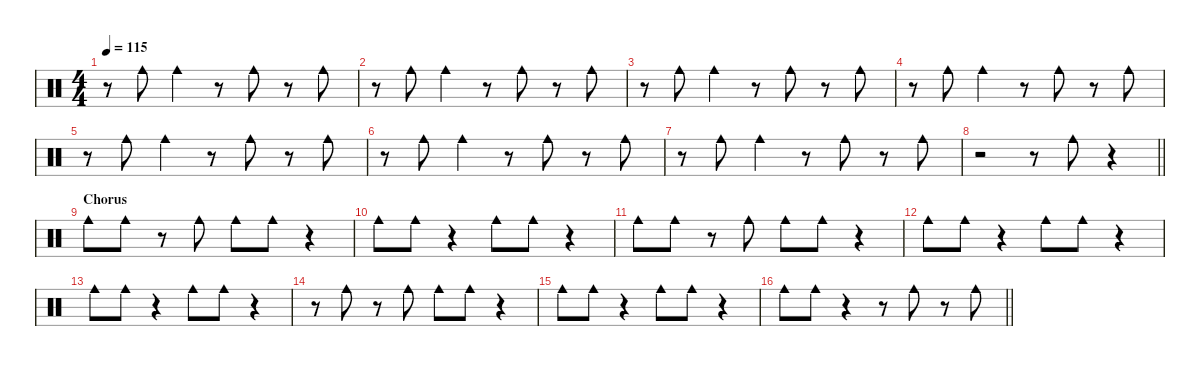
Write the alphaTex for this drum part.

\defaultSystemsLayout 4
\hideDynamics
\bracketExtendMode nobrackets
\singleTrackTrackNamePolicy hidden
\multiTrackTrackNamePolicy hidden
\otherSystemsTrackNameOrientation horizontal
\track ("Cowbell" "drm.") {defaultSystemsLayout 8 instrument percussion}
\staff {score}
\articulation defaults
\ts (4 4)
\tempo 115
\clef neutral
\ks c
r.8{dy f} "Cowbell medium (hit)".8 "Cowbell medium (hit)".4 r.8 "Cowbell medium (hit)".8 r.8 "Cowbell medium (hit)".8 |
r.8 "Cowbell medium (hit)".8 "Cowbell medium (hit)".4 r.8 "Cowbell medium (hit)".8 r.8 "Cowbell medium (hit)".8 |
r.8 "Cowbell medium (hit)".8 "Cowbell medium (hit)".4 r.8 "Cowbell medium (hit)".8 r.8 "Cowbell medium (hit)".8 |
r.8 "Cowbell medium (hit)".8 "Cowbell medium (hit)".4 r.8 "Cowbell medium (hit)".8 r.8 "Cowbell medium (hit)".8 |
r.8 "Cowbell medium (hit)".8 "Cowbell medium (hit)".4 r.8 "Cowbell medium (hit)".8 r.8 "Cowbell medium (hit)".8 |
r.8 "Cowbell medium (hit)".8 "Cowbell medium (hit)".4 r.8 "Cowbell medium (hit)".8 r.8 "Cowbell medium (hit)".8 |
r.8 "Cowbell medium (hit)".8 "Cowbell medium (hit)".4 r.8 "Cowbell medium (hit)".8 r.8 "Cowbell medium (hit)".8 |
\barLineRight lightlight
r.2 r.8 "Cowbell medium (hit)".8 r.4 |
\section ("" "Chorus")
"Cowbell medium (hit)".8 "Cowbell medium (hit)".8 r.8 "Cowbell medium (hit)".8 "Cowbell medium (hit)".8 "Cowbell medium (hit)".8 r.4 |
"Cowbell medium (hit)".8 "Cowbell medium (hit)".8 r.4 "Cowbell medium (hit)".8 "Cowbell medium (hit)".8 r.4 |
"Cowbell medium (hit)".8 "Cowbell medium (hit)".8 r.8 "Cowbell medium (hit)".8 "Cowbell medium (hit)".8 "Cowbell medium (hit)".8 r.4 |
"Cowbell medium (hit)".8 "Cowbell medium (hit)".8 r.4 "Cowbell medium (hit)".8 "Cowbell medium (hit)".8 r.4 |
"Cowbell medium (hit)".8 "Cowbell medium (hit)".8 r.4 "Cowbell medium (hit)".8 "Cowbell medium (hit)".8 r.4 |
r.8 "Cowbell medium (hit)".8 r.8 "Cowbell medium (hit)".8 "Cowbell medium (hit)".8 "Cowbell medium (hit)".8 r.4 |
"Cowbell medium (hit)".8 "Cowbell medium (hit)".8 r.4 "Cowbell medium (hit)".8 "Cowbell medium (hit)".8 r.4 |
\barLineRight lightlight "Cowbell medium (hit)".8 "Cowbell medium (hit)".8
r.4 r.8 "Cowbell medium (hit)".8 r.8 "Cowbell medium (hit)".8
